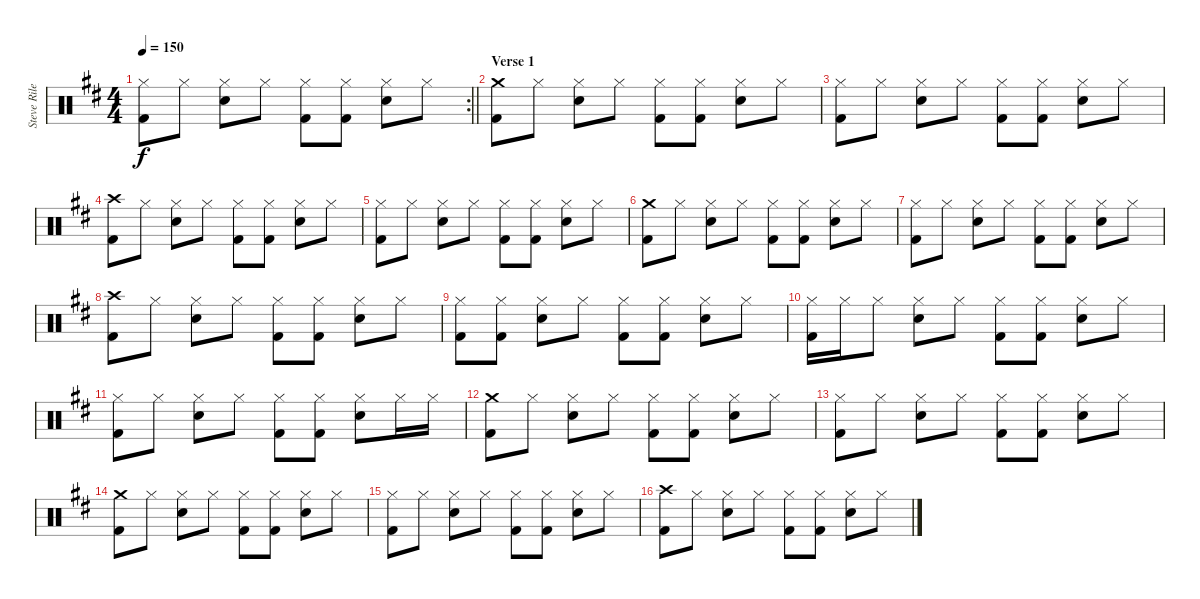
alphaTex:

\track ("Steve Riley" "Steve Rile") {instrument percussion}
\staff {score}
\articulation defaults
\rc 2
\ts (4 4)
\tempo 150
\clef neutral
\barLineRight lightlight
\ks d
("Hi-Hat (closed)" "Kick (hit) 2").8{dy f} "Hi-Hat (closed)".8 ("Hi-Hat (closed)" "Electric Snare (hit)").8 "Hi-Hat (closed)".8 ("Hi-Hat (closed)" "Kick (hit) 2").8 ("Hi-Hat (closed)" "Kick (hit) 2").8 ("Hi-Hat (closed)" "Electric Snare (hit)").8 "Hi-Hat (closed)".8 |
\section ("" "Verse 1")
("Crash medium (hit)" "Kick (hit) 2").8 "Hi-Hat (closed)".8 ("Hi-Hat (closed)" "Electric Snare (hit)").8 "Hi-Hat (closed)".8 ("Hi-Hat (closed)" "Kick (hit) 2").8 ("Hi-Hat (closed)" "Kick (hit) 2").8 ("Hi-Hat (closed)" "Electric Snare (hit)").8 "Hi-Hat (closed)".8 |
("Hi-Hat (closed)" "Kick (hit) 2").8 "Hi-Hat (closed)".8 ("Hi-Hat (closed)" "Electric Snare (hit)").8 "Hi-Hat (closed)".8 ("Hi-Hat (closed)" "Kick (hit) 2").8 ("Hi-Hat (closed)" "Kick (hit) 2").8 ("Hi-Hat (closed)" "Electric Snare (hit)").8 "Hi-Hat (closed)".8 |
("Crash high (hit)" "Kick (hit) 2").8 "Hi-Hat (closed)".8 ("Hi-Hat (closed)" "Electric Snare (hit)").8 "Hi-Hat (closed)".8 ("Hi-Hat (closed)" "Kick (hit) 2").8 ("Hi-Hat (closed)" "Kick (hit) 2").8 ("Hi-Hat (closed)" "Electric Snare (hit)").8 "Hi-Hat (closed)".8 |
("Hi-Hat (closed)" "Kick (hit) 2").8 "Hi-Hat (closed)".8 ("Hi-Hat (closed)" "Electric Snare (hit)").8 "Hi-Hat (closed)".8 ("Hi-Hat (closed)" "Kick (hit) 2").8 ("Hi-Hat (closed)" "Kick (hit) 2").8 ("Hi-Hat (closed)" "Electric Snare (hit)").8 "Hi-Hat (closed)".8 |
("Crash medium (hit)" "Kick (hit) 2").8 "Hi-Hat (closed)".8 ("Hi-Hat (closed)" "Electric Snare (hit)").8 "Hi-Hat (closed)".8 ("Hi-Hat (closed)" "Kick (hit) 2").8 ("Hi-Hat (closed)" "Kick (hit) 2").8 ("Hi-Hat (closed)" "Electric Snare (hit)").8 "Hi-Hat (closed)".8 |
("Hi-Hat (closed)" "Kick (hit) 2").8 "Hi-Hat (closed)".8 ("Hi-Hat (closed)" "Electric Snare (hit)").8 "Hi-Hat (closed)".8 ("Hi-Hat (closed)" "Kick (hit) 2").8 ("Hi-Hat (closed)" "Kick (hit) 2").8 ("Hi-Hat (closed)" "Electric Snare (hit)").8 "Hi-Hat (closed)".8 |
("Crash high (hit)" "Kick (hit) 2").8 "Hi-Hat (closed)".8 ("Hi-Hat (closed)" "Electric Snare (hit)").8 "Hi-Hat (closed)".8 ("Hi-Hat (closed)" "Kick (hit) 2").8 ("Hi-Hat (closed)" "Kick (hit) 2").8 ("Hi-Hat (closed)" "Electric Snare (hit)").8 "Hi-Hat (closed)".8 |
("Hi-Hat (closed)" "Kick (hit) 2").8 ("Hi-Hat (closed)" "Kick (hit) 2").8 ("Hi-Hat (closed)" "Electric Snare (hit)").8 "Hi-Hat (closed)".8 ("Hi-Hat (closed)" "Kick (hit) 2").8 ("Hi-Hat (closed)" "Kick (hit) 2").8 ("Hi-Hat (closed)" "Electric Snare (hit)").8 "Hi-Hat (closed)".8 |
("Hi-Hat (closed)" "Kick (hit) 2").16 "Hi-Hat (closed)".16 "Hi-Hat (closed)".8 ("Hi-Hat (closed)" "Electric Snare (hit)").8 "Hi-Hat (closed)".8 ("Hi-Hat (closed)" "Kick (hit) 2").8 ("Hi-Hat (closed)" "Kick (hit) 2").8 ("Hi-Hat (closed)" "Electric Snare (hit)").8 "Hi-Hat (closed)".8 |
("Hi-Hat (closed)" "Kick (hit) 2").8 "Hi-Hat (closed)".8 ("Hi-Hat (closed)" "Electric Snare (hit)").8 "Hi-Hat (closed)".8 ("Hi-Hat (closed)" "Kick (hit) 2").8 ("Hi-Hat (closed)" "Kick (hit) 2").8 ("Hi-Hat (closed)" "Electric Snare (hit)").8 "Hi-Hat (closed)".16 "Hi-Hat (closed)".16 |
("Crash medium (hit)" "Kick (hit) 2").8 "Hi-Hat (closed)".8 ("Hi-Hat (closed)" "Electric Snare (hit)").8 "Hi-Hat (closed)".8 ("Hi-Hat (closed)" "Kick (hit) 2").8 ("Hi-Hat (closed)" "Kick (hit) 2").8 ("Hi-Hat (closed)" "Electric Snare (hit)").8 "Hi-Hat (closed)".8 |
("Hi-Hat (closed)" "Kick (hit) 2").8 "Hi-Hat (closed)".8 ("Hi-Hat (closed)" "Electric Snare (hit)").8 "Hi-Hat (closed)".8 ("Hi-Hat (closed)" "Kick (hit) 2").8 ("Hi-Hat (closed)" "Kick (hit) 2").8 ("Hi-Hat (closed)" "Electric Snare (hit)").8 "Hi-Hat (closed)".8 |
("Crash medium (hit)" "Kick (hit) 2").8 "Hi-Hat (closed)".8 ("Hi-Hat (closed)" "Electric Snare (hit)").8 "Hi-Hat (closed)".8 ("Hi-Hat (closed)" "Kick (hit) 2").8 ("Hi-Hat (closed)" "Kick (hit) 2").8 ("Hi-Hat (closed)" "Electric Snare (hit)").8 "Hi-Hat (closed)".8 |
("Hi-Hat (closed)" "Kick (hit) 2").8 "Hi-Hat (closed)".8 ("Hi-Hat (closed)" "Electric Snare (hit)").8 "Hi-Hat (closed)".8 ("Hi-Hat (closed)" "Kick (hit) 2").8 ("Hi-Hat (closed)" "Kick (hit) 2").8 ("Hi-Hat (closed)" "Electric Snare (hit)").8 "Hi-Hat (closed)".8 |
("Crash high (hit)" "Kick (hit) 2").8 "Hi-Hat (closed)".8 ("Hi-Hat (closed)" "Electric Snare (hit)").8 "Hi-Hat (closed)".8 ("Hi-Hat (closed)" "Kick (hit) 2").8 ("Hi-Hat (closed)" "Kick (hit) 2").8 ("Hi-Hat (closed)" "Electric Snare (hit)").8 "Hi-Hat (closed)".8
